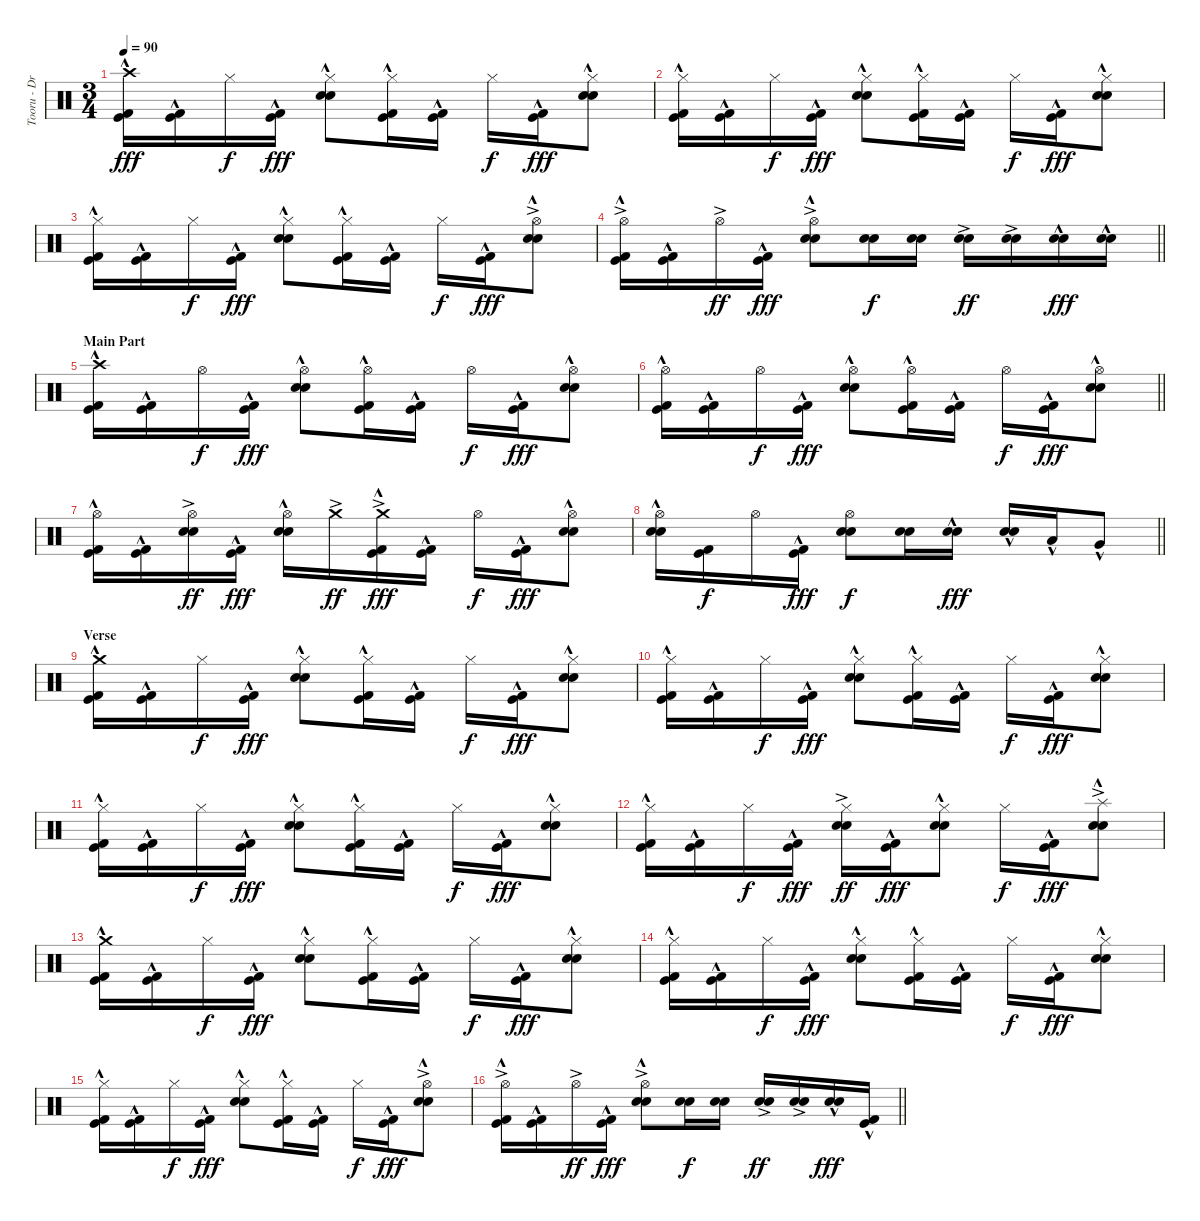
\track ("Tooru - Drums" "Tooru - Dr") {instrument percussion}
\staff {score}
\articulation defaults
\ts (3 4)
\tempo 90
\clef neutral
\ks c
("Crash high (hit)" "Kick (hit)"{hac} "Kick (hit) 2"{hac}).16{dy fff} ("Kick (hit)"{hac} "Kick (hit) 2"{hac}).16 "Hi-Hat (closed)".16{dy f} ("Kick (hit)"{hac} "Kick (hit) 2"{hac}).16{dy fff} ("Hi-Hat (closed)" "Electric Snare (hit)"{hac} "Snare (hit) 2"{hac}).8 ("Hi-Hat (closed)" "Kick (hit)"{hac} "Kick (hit) 2"{hac}).16 ("Kick (hit)"{hac} "Kick (hit) 2"{hac}).16 "Hi-Hat (closed)".16{dy f} ("Kick (hit)"{hac} "Kick (hit) 2"{hac}).16{dy fff} ("Hi-Hat (closed)" "Electric Snare (hit)"{hac} "Snare (hit) 2"{hac}).8 |
("Hi-Hat (closed)" "Kick (hit)"{hac} "Kick (hit) 2"{hac}).16 ("Kick (hit)"{hac} "Kick (hit) 2"{hac}).16 "Hi-Hat (closed)".16{dy f} ("Kick (hit)"{hac} "Kick (hit) 2"{hac}).16{dy fff} ("Hi-Hat (closed)" "Electric Snare (hit)"{hac} "Snare (hit) 2"{hac}).8 ("Hi-Hat (closed)" "Kick (hit)"{hac} "Kick (hit) 2"{hac}).16 ("Kick (hit)"{hac} "Kick (hit) 2"{hac}).16 "Hi-Hat (closed)".16{dy f} ("Kick (hit)"{hac} "Kick (hit) 2"{hac}).16{dy fff} ("Hi-Hat (closed)" "Electric Snare (hit)"{hac} "Snare (hit) 2"{hac}).8 |
("Hi-Hat (closed)" "Kick (hit)"{hac} "Kick (hit) 2"{hac}).16 ("Kick (hit)"{hac} "Kick (hit) 2"{hac}).16 "Hi-Hat (closed)".16{dy f} ("Kick (hit)"{hac} "Kick (hit) 2"{hac}).16{dy fff} ("Hi-Hat (closed)" "Electric Snare (hit)"{hac} "Snare (hit) 2"{hac}).8 ("Hi-Hat (closed)" "Kick (hit)"{hac} "Kick (hit) 2"{hac}).16 ("Kick (hit)"{hac} "Kick (hit) 2"{hac}).16 "Hi-Hat (closed)".16{dy f} ("Kick (hit)"{hac} "Kick (hit) 2"{hac}).16{dy fff} ("Hi-Hat (open)"{ac} "Electric Snare (hit)"{hac} "Snare (hit) 2"{hac}).8 |
\barLineRight lightlight
("Hi-Hat (open)"{ac} "Kick (hit)"{hac} "Kick (hit) 2"{hac}).16 ("Kick (hit)"{hac} "Kick (hit) 2"{hac}).16 "Hi-Hat (open)"{ac}.16{dy ff} ("Kick (hit)"{hac} "Kick (hit) 2"{hac}).16{dy fff} ("Hi-Hat (open)"{ac} "Electric Snare (hit)"{hac} "Snare (hit) 2"{hac}).8 ("Electric Snare (hit)" "Snare (hit) 2").16{dy f} ("Electric Snare (hit)" "Snare (hit) 2").16 ("Electric Snare (hit)"{ac} "Snare (hit) 2"{ac}).16{dy ff} ("Electric Snare (hit)"{ac} "Snare (hit) 2"{ac}).16 ("Electric Snare (hit)"{hac} "Snare (hit) 2"{hac}).16{dy fff} ("Electric Snare (hit)"{hac} "Snare (hit) 2"{hac}).16 |
\section ("" "Main Part")
("Crash high (hit)"{hac} "Kick (hit)"{hac} "Kick (hit) 2"{hac}).16 ("Kick (hit)"{hac} "Kick (hit) 2"{hac}).16 "Hi-Hat (open)".16{dy f} ("Kick (hit)"{hac} "Kick (hit) 2"{hac}).16{dy fff} ("Hi-Hat (open)" "Electric Snare (hit)"{hac} "Snare (hit) 2"{hac}).8 ("Hi-Hat (open)" "Kick (hit)"{hac} "Kick (hit) 2"{hac}).16 ("Kick (hit)"{hac} "Kick (hit) 2"{hac}).16 "Hi-Hat (open)".16{dy f} ("Kick (hit)"{hac} "Kick (hit) 2"{hac}).16{dy fff} ("Hi-Hat (open)" "Electric Snare (hit)"{hac} "Snare (hit) 2"{hac}).8 |
\barLineRight lightlight
("Hi-Hat (open)" "Kick (hit)"{hac} "Kick (hit) 2"{hac}).16 ("Kick (hit)"{hac} "Kick (hit) 2"{hac}).16 "Hi-Hat (open)".16{dy f} ("Kick (hit)"{hac} "Kick (hit) 2"{hac}).16{dy fff} ("Hi-Hat (open)" "Electric Snare (hit)"{hac} "Snare (hit) 2"{hac}).8 ("Hi-Hat (open)" "Kick (hit)"{hac} "Kick (hit) 2"{hac}).16 ("Kick (hit)"{hac} "Kick (hit) 2"{hac}).16 "Hi-Hat (open)".16{dy f} ("Kick (hit)"{hac} "Kick (hit) 2"{hac}).16{dy fff} ("Hi-Hat (open)" "Electric Snare (hit)"{hac} "Snare (hit) 2"{hac}).8 |
("Hi-Hat (open)" "Kick (hit)"{hac} "Kick (hit) 2"{hac}).16 ("Kick (hit)"{hac} "Kick (hit) 2"{hac}).16 ("Hi-Hat (open)"{ac} "Electric Snare (hit)"{ac} "Snare (hit) 2"{ac}).16{dy ff} ("Kick (hit)"{hac} "Kick (hit) 2"{hac}).16{dy fff} ("Hi-Hat (open)"{hac} "Electric Snare (hit)"{hac} "Snare (hit) 2"{hac}).16 "Crash medium (hit)"{ac}.16{dy ff} ("Crash medium (hit)"{ac} "Kick (hit)"{hac} "Kick (hit) 2"{hac}).16{dy fff} ("Kick (hit)"{hac} "Kick (hit) 2"{hac}).16 "Hi-Hat (open)".16{dy f} ("Kick (hit)"{hac} "Kick (hit) 2"{hac}).16{dy fff} ("Hi-Hat (open)" "Electric Snare (hit)"{hac} "Snare (hit) 2"{hac}).8 |
\barLineRight lightlight
("Hi-Hat (open)" "Electric Snare (hit)"{hac} "Snare (hit) 2"{hac}).16 ("Kick (hit)" "Kick (hit) 2").16{dy f} "Hi-Hat (open)".16 ("Kick (hit)"{hac} "Kick (hit) 2"{hac}).16{dy fff} ("Hi-Hat (open)" "Electric Snare (hit)" "Snare (hit) 2").8{dy f} ("Electric Snare (hit)" "Snare (hit) 2").16 ("Electric Snare (hit)"{hac} "Snare (hit) 2"{hac}).16{dy fff} ("Electric Snare (hit)"{hac} "Snare (hit) 2"{hac}).16 "Low Tom (hit)"{hac}.16 "Very Low Tom (hit)"{hac}.8 |
\section ("" "Verse ")
("Crash medium (hit)" "Kick (hit)"{hac} "Kick (hit) 2"{hac}).16 ("Kick (hit)"{hac} "Kick (hit) 2"{hac}).16 "Hi-Hat (closed)".16{dy f} ("Kick (hit)"{hac} "Kick (hit) 2"{hac}).16{dy fff} ("Hi-Hat (closed)" "Electric Snare (hit)"{hac} "Snare (hit) 2"{hac}).8 ("Hi-Hat (closed)" "Kick (hit)"{hac} "Kick (hit) 2"{hac}).16 ("Kick (hit)"{hac} "Kick (hit) 2"{hac}).16 "Hi-Hat (closed)".16{dy f} ("Kick (hit)"{hac} "Kick (hit) 2"{hac}).16{dy fff} ("Hi-Hat (closed)" "Electric Snare (hit)"{hac} "Snare (hit) 2"{hac}).8 |
("Hi-Hat (closed)" "Kick (hit)"{hac} "Kick (hit) 2"{hac}).16 ("Kick (hit)"{hac} "Kick (hit) 2"{hac}).16 "Hi-Hat (closed)".16{dy f} ("Kick (hit)"{hac} "Kick (hit) 2"{hac}).16{dy fff} ("Hi-Hat (closed)" "Electric Snare (hit)"{hac} "Snare (hit) 2"{hac}).8 ("Hi-Hat (closed)" "Kick (hit)"{hac} "Kick (hit) 2"{hac}).16 ("Kick (hit)"{hac} "Kick (hit) 2"{hac}).16 "Hi-Hat (closed)".16{dy f} ("Kick (hit)"{hac} "Kick (hit) 2"{hac}).16{dy fff} ("Hi-Hat (closed)" "Electric Snare (hit)"{hac} "Snare (hit) 2"{hac}).8 |
("Hi-Hat (closed)" "Kick (hit)"{hac} "Kick (hit) 2"{hac}).16 ("Kick (hit)"{hac} "Kick (hit) 2"{hac}).16 "Hi-Hat (closed)".16{dy f} ("Kick (hit)"{hac} "Kick (hit) 2"{hac}).16{dy fff} ("Hi-Hat (closed)" "Electric Snare (hit)"{hac} "Snare (hit) 2"{hac}).8 ("Hi-Hat (closed)" "Kick (hit)"{hac} "Kick (hit) 2"{hac}).16 ("Kick (hit)"{hac} "Kick (hit) 2"{hac}).16 "Hi-Hat (closed)".16{dy f} ("Kick (hit)"{hac} "Kick (hit) 2"{hac}).16{dy fff} ("Hi-Hat (closed)" "Electric Snare (hit)"{hac} "Snare (hit) 2"{hac}).8 |
("Hi-Hat (closed)" "Kick (hit)"{hac} "Kick (hit) 2"{hac}).16 ("Kick (hit)"{hac} "Kick (hit) 2"{hac}).16 "Hi-Hat (closed)".16{dy f} ("Kick (hit)"{hac} "Kick (hit) 2"{hac}).16{dy fff} ("Hi-Hat (closed)" "Electric Snare (hit)"{ac} "Snare (hit) 2"{ac}).16{dy ff} ("Kick (hit)"{hac} "Kick (hit) 2"{hac}).16{dy fff} ("Hi-Hat (closed)" "Electric Snare (hit)"{hac} "Snare (hit) 2"{hac}).8 "Hi-Hat (closed)".16{dy f} ("Kick (hit)"{hac} "Kick (hit) 2"{hac}).16{dy fff} ("Splash (hit)"{ac} "Electric Snare (hit)"{hac} "Snare (hit) 2"{hac}).8 |
("Crash medium (hit)"{hac} "Kick (hit)"{hac} "Kick (hit) 2"{hac}).16 ("Kick (hit)"{hac} "Kick (hit) 2"{hac}).16 "Hi-Hat (closed)".16{dy f} ("Kick (hit)"{hac} "Kick (hit) 2"{hac}).16{dy fff} ("Hi-Hat (closed)" "Electric Snare (hit)"{hac} "Snare (hit) 2"{hac}).8 ("Hi-Hat (closed)" "Kick (hit)"{hac} "Kick (hit) 2"{hac}).16 ("Kick (hit)"{hac} "Kick (hit) 2"{hac}).16 "Hi-Hat (closed)".16{dy f} ("Kick (hit)"{hac} "Kick (hit) 2"{hac}).16{dy fff} ("Hi-Hat (closed)" "Electric Snare (hit)"{hac} "Snare (hit) 2"{hac}).8 |
("Hi-Hat (closed)" "Kick (hit)"{hac} "Kick (hit) 2"{hac}).16 ("Kick (hit)"{hac} "Kick (hit) 2"{hac}).16 "Hi-Hat (closed)".16{dy f} ("Kick (hit)"{hac} "Kick (hit) 2"{hac}).16{dy fff} ("Hi-Hat (closed)" "Electric Snare (hit)"{hac} "Snare (hit) 2"{hac}).8 ("Hi-Hat (closed)" "Kick (hit)"{hac} "Kick (hit) 2"{hac}).16 ("Kick (hit)"{hac} "Kick (hit) 2"{hac}).16 "Hi-Hat (closed)".16{dy f} ("Kick (hit)"{hac} "Kick (hit) 2"{hac}).16{dy fff} ("Hi-Hat (closed)" "Electric Snare (hit)"{hac} "Snare (hit) 2"{hac}).8 |
("Hi-Hat (closed)" "Kick (hit)"{hac} "Kick (hit) 2"{hac}).16 ("Kick (hit)"{hac} "Kick (hit) 2"{hac}).16 "Hi-Hat (closed)".16{dy f} ("Kick (hit)"{hac} "Kick (hit) 2"{hac}).16{dy fff} ("Hi-Hat (closed)" "Electric Snare (hit)"{hac} "Snare (hit) 2"{hac}).8 ("Hi-Hat (closed)" "Kick (hit)"{hac} "Kick (hit) 2"{hac}).16 ("Kick (hit)"{hac} "Kick (hit) 2"{hac}).16 "Hi-Hat (closed)".16{dy f} ("Kick (hit)"{hac} "Kick (hit) 2"{hac}).16{dy fff} ("Hi-Hat (open)"{ac} "Electric Snare (hit)"{hac} "Snare (hit) 2"{hac}).8 |
\barLineRight lightlight
("Hi-Hat (open)"{ac} "Kick (hit)"{hac} "Kick (hit) 2"{hac}).16 ("Kick (hit)"{hac} "Kick (hit) 2"{hac}).16 "Hi-Hat (open)"{ac}.16{dy ff} ("Kick (hit)"{hac} "Kick (hit) 2"{hac}).16{dy fff} ("Hi-Hat (open)"{ac} "Electric Snare (hit)"{hac} "Snare (hit) 2"{hac}).8 ("Electric Snare (hit)" "Snare (hit) 2").16{dy f} ("Electric Snare (hit)" "Snare (hit) 2").16 ("Electric Snare (hit)"{ac} "Snare (hit) 2"{ac}).16{dy ff} ("Electric Snare (hit)"{ac} "Snare (hit) 2"{ac}).16 ("Electric Snare (hit)"{hac} "Snare (hit) 2"{hac}).16{dy fff} ("Kick (hit)"{hac} "Kick (hit) 2"{hac}).16
